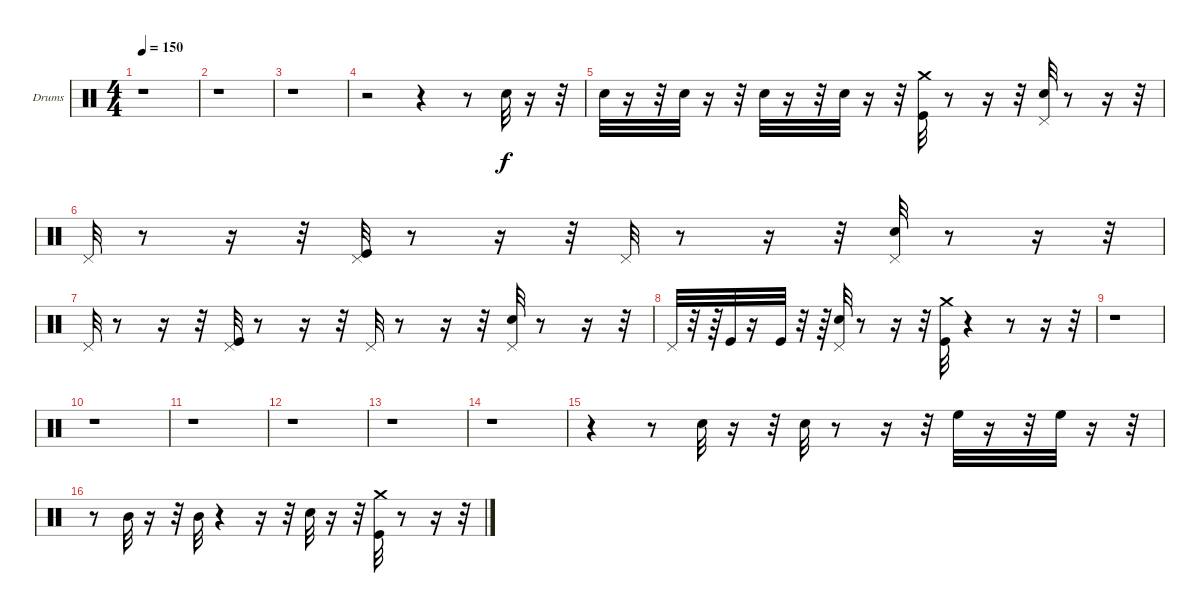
\bracketExtendMode groupsimilarinstruments
\firstSystemTrackNameOrientation horizontal
\otherSystemsTrackNameOrientation horizontal
\track ("Drumkit" "Drums") {instrument percussion}
\staff {score}
\articulation defaults
\ts (4 4)
\tempo 150
\clef neutral
\ks c
r.1{dy f} |
r.1 |
r.1 |
r.2 r.4 r.8 "Snare (hit) 2".32 r.16 r.32 |
"Snare (hit) 2".32 r.16 r.32 "Snare (hit) 2".32 r.16 r.32 "Snare (hit) 2".32 r.16 r.32 "Snare (hit) 2".32 r.16 r.32 ("Crash medium (hit)" "Kick (hit)").32 r.8 r.16 r.32 ("Pedal Hi-Hat (hit)" "Snare (hit) 2").32 r.8 r.16 r.32 |
"Pedal Hi-Hat (hit)".32 r.8 r.16 r.32 ("Pedal Hi-Hat (hit)" "Kick (hit)").32 r.8 r.16 r.32 "Pedal Hi-Hat (hit)".32 r.8 r.16 r.32 ("Pedal Hi-Hat (hit)" "Snare (hit) 2").32 r.8 r.16 r.32 |
"Pedal Hi-Hat (hit)".32 r.8 r.16 r.32 ("Pedal Hi-Hat (hit)" "Kick (hit)").32 r.8 r.16 r.32 "Pedal Hi-Hat (hit)".32 r.8 r.16 r.32 ("Pedal Hi-Hat (hit)" "Snare (hit) 2").32 r.8 r.16 r.32 |
"Pedal Hi-Hat (hit)".32 r.32 r.64 "Kick (hit)".32 r.16 "Kick (hit)".32 r.32 r.64 ("Pedal Hi-Hat (hit)" "Snare (hit) 2").32 r.8 r.16 r.32 ("Crash medium (hit)" "Kick (hit)").32 r.4 r.8 r.16 r.32 |
r.1 |
r.1 |
r.1 |
r.1 |
r.1 |
r.1 |
r.4 r.8 "Snare (hit) 2".32 r.16 r.32 "Snare (hit) 2".32 r.8 r.16 r.32 "High Floor Tom (hit)".32 r.16 r.32 "High Floor Tom (hit)".32 r.16 r.32 |
r.8 "Mid Tom (hit)".32 r.16 r.32 "Mid Tom (hit)".32 r.4 r.16 r.32 "Snare (hit) 2".32 r.16 r.32 ("Crash medium (hit)" "Kick (hit)").32 r.8 r.16 r.32
